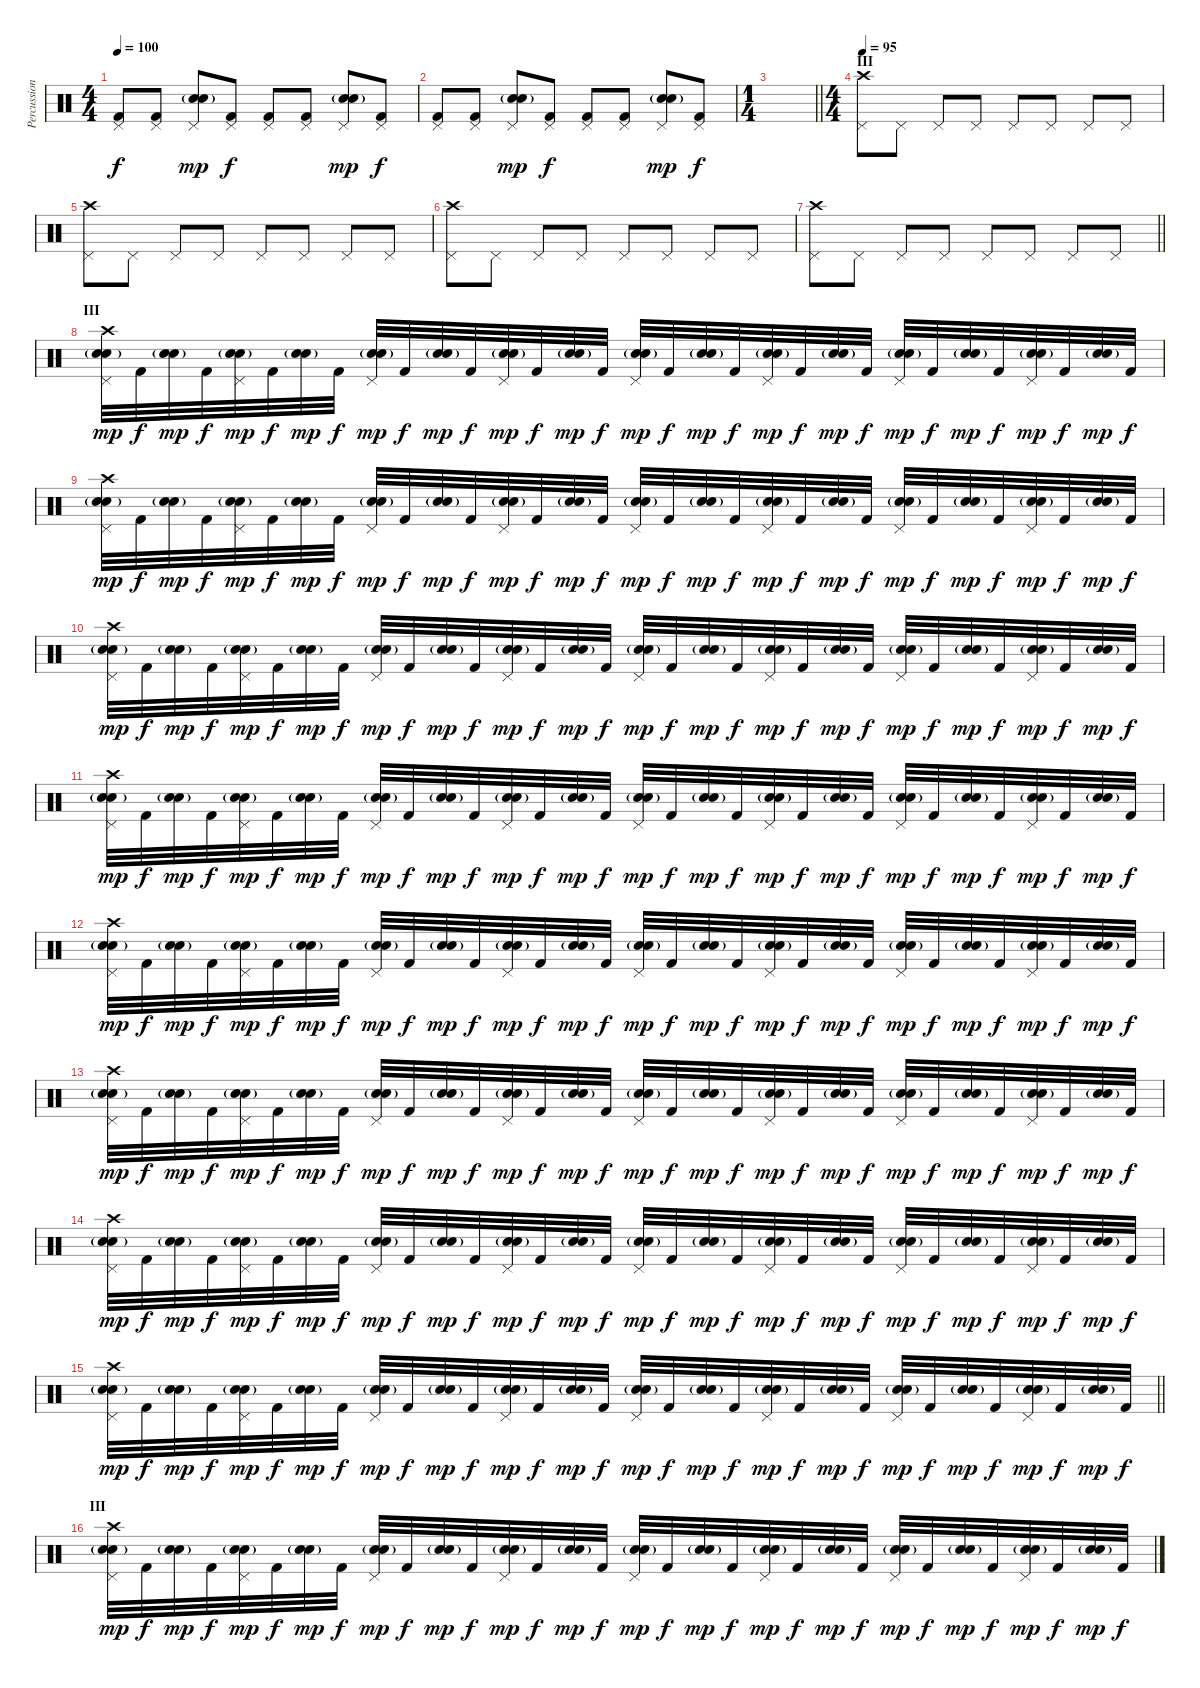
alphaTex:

\track ("Percussion" "Percussion") {instrument percussion}
\staff {score}
\articulation defaults
\ts (4 4)
\tempo 100
\clef neutral
\ks c
("Kick (hit) 2" "Pedal Hi-Hat (hit)").8{dy f} ("Kick (hit) 2" "Pedal Hi-Hat (hit)").8 ("Electric Snare (hit)" "Snare (hit) 2"{g} "Pedal Hi-Hat (hit)").8{dy mp} ("Kick (hit) 2" "Pedal Hi-Hat (hit)").8{dy f} ("Kick (hit) 2" "Pedal Hi-Hat (hit)").8 ("Kick (hit) 2" "Pedal Hi-Hat (hit)").8 ("Electric Snare (hit)" "Snare (hit) 2"{g} "Pedal Hi-Hat (hit)").8{dy mp} ("Kick (hit) 2" "Pedal Hi-Hat (hit)").8{dy f} |
("Kick (hit) 2" "Pedal Hi-Hat (hit)").8 ("Kick (hit) 2" "Pedal Hi-Hat (hit)").8 ("Electric Snare (hit)" "Snare (hit) 2"{g} "Pedal Hi-Hat (hit)").8{dy mp} ("Kick (hit) 2" "Pedal Hi-Hat (hit)").8{dy f} ("Kick (hit) 2" "Pedal Hi-Hat (hit)").8 ("Kick (hit) 2" "Pedal Hi-Hat (hit)").8 ("Electric Snare (hit)" "Snare (hit) 2"{g} "Pedal Hi-Hat (hit)").8{dy mp} ("Kick (hit) 2" "Pedal Hi-Hat (hit)").8{dy f} |
\ts (1 4)
\barLineRight lightlight
|
\ts (4 4)
\section ("" "III")
\tempo 95
("Crash high (hit)" "Pedal Hi-Hat (hit)").8 "Pedal Hi-Hat (hit)".8 "Pedal Hi-Hat (hit)".8 "Pedal Hi-Hat (hit)".8 "Pedal Hi-Hat (hit)".8 "Pedal Hi-Hat (hit)".8 "Pedal Hi-Hat (hit)".8 "Pedal Hi-Hat (hit)".8 |
("Crash high (hit)" "Pedal Hi-Hat (hit)").8 "Pedal Hi-Hat (hit)".8 "Pedal Hi-Hat (hit)".8 "Pedal Hi-Hat (hit)".8 "Pedal Hi-Hat (hit)".8 "Pedal Hi-Hat (hit)".8 "Pedal Hi-Hat (hit)".8 "Pedal Hi-Hat (hit)".8 |
("Crash high (hit)" "Pedal Hi-Hat (hit)").8 "Pedal Hi-Hat (hit)".8 "Pedal Hi-Hat (hit)".8 "Pedal Hi-Hat (hit)".8 "Pedal Hi-Hat (hit)".8 "Pedal Hi-Hat (hit)".8 "Pedal Hi-Hat (hit)".8 "Pedal Hi-Hat (hit)".8 |
\barLineRight lightlight
("Crash high (hit)" "Pedal Hi-Hat (hit)").8 "Pedal Hi-Hat (hit)".8 "Pedal Hi-Hat (hit)".8 "Pedal Hi-Hat (hit)".8 "Pedal Hi-Hat (hit)".8 "Pedal Hi-Hat (hit)".8 "Pedal Hi-Hat (hit)".8 "Pedal Hi-Hat (hit)".8 |
\section ("" "III")
("Crash high (hit)" "Electric Snare (hit)" "Snare (hit) 2"{g} "Pedal Hi-Hat (hit)").32{dy mp} "Kick (hit) 2".32{dy f} ("Electric Snare (hit)" "Snare (hit) 2"{g}).32{dy mp} "Kick (hit) 2".32{dy f} ("Electric Snare (hit)" "Snare (hit) 2"{g} "Pedal Hi-Hat (hit)").32{dy mp} "Kick (hit) 2".32{dy f} ("Electric Snare (hit)" "Snare (hit) 2"{g}).32{dy mp} "Kick (hit) 2".32{dy f} ("Electric Snare (hit)" "Snare (hit) 2"{g} "Pedal Hi-Hat (hit)").32{dy mp} "Kick (hit) 2".32{dy f} ("Electric Snare (hit)" "Snare (hit) 2"{g}).32{dy mp} "Kick (hit) 2".32{dy f} ("Electric Snare (hit)" "Snare (hit) 2"{g} "Pedal Hi-Hat (hit)").32{dy mp} "Kick (hit) 2".32{dy f} ("Electric Snare (hit)" "Snare (hit) 2"{g}).32{dy mp} "Kick (hit) 2".32{dy f} ("Electric Snare (hit)" "Snare (hit) 2"{g} "Pedal Hi-Hat (hit)").32{dy mp} "Kick (hit) 2".32{dy f} ("Electric Snare (hit)" "Snare (hit) 2"{g}).32{dy mp} "Kick (hit) 2".32{dy f} ("Electric Snare (hit)" "Snare (hit) 2"{g} "Pedal Hi-Hat (hit)").32{dy mp} "Kick (hit) 2".32{dy f} ("Electric Snare (hit)" "Snare (hit) 2"{g}).32{dy mp} "Kick (hit) 2".32{dy f} ("Electric Snare (hit)" "Snare (hit) 2"{g} "Pedal Hi-Hat (hit)").32{dy mp} "Kick (hit) 2".32{dy f} ("Electric Snare (hit)" "Snare (hit) 2"{g}).32{dy mp} "Kick (hit) 2".32{dy f} ("Electric Snare (hit)" "Snare (hit) 2"{g} "Pedal Hi-Hat (hit)").32{dy mp} "Kick (hit) 2".32{dy f} ("Electric Snare (hit)" "Snare (hit) 2"{g}).32{dy mp} "Kick (hit) 2".32{dy f} |
("Crash high (hit)" "Electric Snare (hit)" "Snare (hit) 2"{g} "Pedal Hi-Hat (hit)").32{dy mp} "Kick (hit) 2".32{dy f} ("Electric Snare (hit)" "Snare (hit) 2"{g}).32{dy mp} "Kick (hit) 2".32{dy f} ("Electric Snare (hit)" "Snare (hit) 2"{g} "Pedal Hi-Hat (hit)").32{dy mp} "Kick (hit) 2".32{dy f} ("Electric Snare (hit)" "Snare (hit) 2"{g}).32{dy mp} "Kick (hit) 2".32{dy f} ("Electric Snare (hit)" "Snare (hit) 2"{g} "Pedal Hi-Hat (hit)").32{dy mp} "Kick (hit) 2".32{dy f} ("Electric Snare (hit)" "Snare (hit) 2"{g}).32{dy mp} "Kick (hit) 2".32{dy f} ("Electric Snare (hit)" "Snare (hit) 2"{g} "Pedal Hi-Hat (hit)").32{dy mp} "Kick (hit) 2".32{dy f} ("Electric Snare (hit)" "Snare (hit) 2"{g}).32{dy mp} "Kick (hit) 2".32{dy f} ("Electric Snare (hit)" "Snare (hit) 2"{g} "Pedal Hi-Hat (hit)").32{dy mp} "Kick (hit) 2".32{dy f} ("Electric Snare (hit)" "Snare (hit) 2"{g}).32{dy mp} "Kick (hit) 2".32{dy f} ("Electric Snare (hit)" "Snare (hit) 2"{g} "Pedal Hi-Hat (hit)").32{dy mp} "Kick (hit) 2".32{dy f} ("Electric Snare (hit)" "Snare (hit) 2"{g}).32{dy mp} "Kick (hit) 2".32{dy f} ("Electric Snare (hit)" "Snare (hit) 2"{g} "Pedal Hi-Hat (hit)").32{dy mp} "Kick (hit) 2".32{dy f} ("Electric Snare (hit)" "Snare (hit) 2"{g}).32{dy mp} "Kick (hit) 2".32{dy f} ("Electric Snare (hit)" "Snare (hit) 2"{g} "Pedal Hi-Hat (hit)").32{dy mp} "Kick (hit) 2".32{dy f} ("Electric Snare (hit)" "Snare (hit) 2"{g}).32{dy mp} "Kick (hit) 2".32{dy f} |
("Crash high (hit)" "Electric Snare (hit)" "Snare (hit) 2"{g} "Pedal Hi-Hat (hit)").32{dy mp} "Kick (hit) 2".32{dy f} ("Electric Snare (hit)" "Snare (hit) 2"{g}).32{dy mp} "Kick (hit) 2".32{dy f} ("Electric Snare (hit)" "Snare (hit) 2"{g} "Pedal Hi-Hat (hit)").32{dy mp} "Kick (hit) 2".32{dy f} ("Electric Snare (hit)" "Snare (hit) 2"{g}).32{dy mp} "Kick (hit) 2".32{dy f} ("Electric Snare (hit)" "Snare (hit) 2"{g} "Pedal Hi-Hat (hit)").32{dy mp} "Kick (hit) 2".32{dy f} ("Electric Snare (hit)" "Snare (hit) 2"{g}).32{dy mp} "Kick (hit) 2".32{dy f} ("Electric Snare (hit)" "Snare (hit) 2"{g} "Pedal Hi-Hat (hit)").32{dy mp} "Kick (hit) 2".32{dy f} ("Electric Snare (hit)" "Snare (hit) 2"{g}).32{dy mp} "Kick (hit) 2".32{dy f} ("Electric Snare (hit)" "Snare (hit) 2"{g} "Pedal Hi-Hat (hit)").32{dy mp} "Kick (hit) 2".32{dy f} ("Electric Snare (hit)" "Snare (hit) 2"{g}).32{dy mp} "Kick (hit) 2".32{dy f} ("Electric Snare (hit)" "Snare (hit) 2"{g} "Pedal Hi-Hat (hit)").32{dy mp} "Kick (hit) 2".32{dy f} ("Electric Snare (hit)" "Snare (hit) 2"{g}).32{dy mp} "Kick (hit) 2".32{dy f} ("Electric Snare (hit)" "Snare (hit) 2"{g} "Pedal Hi-Hat (hit)").32{dy mp} "Kick (hit) 2".32{dy f} ("Electric Snare (hit)" "Snare (hit) 2"{g}).32{dy mp} "Kick (hit) 2".32{dy f} ("Electric Snare (hit)" "Snare (hit) 2"{g} "Pedal Hi-Hat (hit)").32{dy mp} "Kick (hit) 2".32{dy f} ("Electric Snare (hit)" "Snare (hit) 2"{g}).32{dy mp} "Kick (hit) 2".32{dy f} |
("Crash high (hit)" "Electric Snare (hit)" "Snare (hit) 2"{g} "Pedal Hi-Hat (hit)").32{dy mp} "Kick (hit) 2".32{dy f} ("Electric Snare (hit)" "Snare (hit) 2"{g}).32{dy mp} "Kick (hit) 2".32{dy f} ("Electric Snare (hit)" "Snare (hit) 2"{g} "Pedal Hi-Hat (hit)").32{dy mp} "Kick (hit) 2".32{dy f} ("Electric Snare (hit)" "Snare (hit) 2"{g}).32{dy mp} "Kick (hit) 2".32{dy f} ("Electric Snare (hit)" "Snare (hit) 2"{g} "Pedal Hi-Hat (hit)").32{dy mp} "Kick (hit) 2".32{dy f} ("Electric Snare (hit)" "Snare (hit) 2"{g}).32{dy mp} "Kick (hit) 2".32{dy f} ("Electric Snare (hit)" "Snare (hit) 2"{g} "Pedal Hi-Hat (hit)").32{dy mp} "Kick (hit) 2".32{dy f} ("Electric Snare (hit)" "Snare (hit) 2"{g}).32{dy mp} "Kick (hit) 2".32{dy f} ("Electric Snare (hit)" "Snare (hit) 2"{g} "Pedal Hi-Hat (hit)").32{dy mp} "Kick (hit) 2".32{dy f} ("Electric Snare (hit)" "Snare (hit) 2"{g}).32{dy mp} "Kick (hit) 2".32{dy f} ("Electric Snare (hit)" "Snare (hit) 2"{g} "Pedal Hi-Hat (hit)").32{dy mp} "Kick (hit) 2".32{dy f} ("Electric Snare (hit)" "Snare (hit) 2"{g}).32{dy mp} "Kick (hit) 2".32{dy f} ("Electric Snare (hit)" "Snare (hit) 2"{g} "Pedal Hi-Hat (hit)").32{dy mp} "Kick (hit) 2".32{dy f} ("Electric Snare (hit)" "Snare (hit) 2"{g}).32{dy mp} "Kick (hit) 2".32{dy f} ("Electric Snare (hit)" "Snare (hit) 2"{g} "Pedal Hi-Hat (hit)").32{dy mp} "Kick (hit) 2".32{dy f} ("Electric Snare (hit)" "Snare (hit) 2"{g}).32{dy mp} "Kick (hit) 2".32{dy f} |
("Crash high (hit)" "Electric Snare (hit)" "Snare (hit) 2"{g} "Pedal Hi-Hat (hit)").32{dy mp} "Kick (hit) 2".32{dy f} ("Electric Snare (hit)" "Snare (hit) 2"{g}).32{dy mp} "Kick (hit) 2".32{dy f} ("Electric Snare (hit)" "Snare (hit) 2"{g} "Pedal Hi-Hat (hit)").32{dy mp} "Kick (hit) 2".32{dy f} ("Electric Snare (hit)" "Snare (hit) 2"{g}).32{dy mp} "Kick (hit) 2".32{dy f} ("Electric Snare (hit)" "Snare (hit) 2"{g} "Pedal Hi-Hat (hit)").32{dy mp} "Kick (hit) 2".32{dy f} ("Electric Snare (hit)" "Snare (hit) 2"{g}).32{dy mp} "Kick (hit) 2".32{dy f} ("Electric Snare (hit)" "Snare (hit) 2"{g} "Pedal Hi-Hat (hit)").32{dy mp} "Kick (hit) 2".32{dy f} ("Electric Snare (hit)" "Snare (hit) 2"{g}).32{dy mp} "Kick (hit) 2".32{dy f} ("Electric Snare (hit)" "Snare (hit) 2"{g} "Pedal Hi-Hat (hit)").32{dy mp} "Kick (hit) 2".32{dy f} ("Electric Snare (hit)" "Snare (hit) 2"{g}).32{dy mp} "Kick (hit) 2".32{dy f} ("Electric Snare (hit)" "Snare (hit) 2"{g} "Pedal Hi-Hat (hit)").32{dy mp} "Kick (hit) 2".32{dy f} ("Electric Snare (hit)" "Snare (hit) 2"{g}).32{dy mp} "Kick (hit) 2".32{dy f} ("Electric Snare (hit)" "Snare (hit) 2"{g} "Pedal Hi-Hat (hit)").32{dy mp} "Kick (hit) 2".32{dy f} ("Electric Snare (hit)" "Snare (hit) 2"{g}).32{dy mp} "Kick (hit) 2".32{dy f} ("Electric Snare (hit)" "Snare (hit) 2"{g} "Pedal Hi-Hat (hit)").32{dy mp} "Kick (hit) 2".32{dy f} ("Electric Snare (hit)" "Snare (hit) 2"{g}).32{dy mp} "Kick (hit) 2".32{dy f} |
("Crash high (hit)" "Electric Snare (hit)" "Snare (hit) 2"{g} "Pedal Hi-Hat (hit)").32{dy mp} "Kick (hit) 2".32{dy f} ("Electric Snare (hit)" "Snare (hit) 2"{g}).32{dy mp} "Kick (hit) 2".32{dy f} ("Electric Snare (hit)" "Snare (hit) 2"{g} "Pedal Hi-Hat (hit)").32{dy mp} "Kick (hit) 2".32{dy f} ("Electric Snare (hit)" "Snare (hit) 2"{g}).32{dy mp} "Kick (hit) 2".32{dy f} ("Electric Snare (hit)" "Snare (hit) 2"{g} "Pedal Hi-Hat (hit)").32{dy mp} "Kick (hit) 2".32{dy f} ("Electric Snare (hit)" "Snare (hit) 2"{g}).32{dy mp} "Kick (hit) 2".32{dy f} ("Electric Snare (hit)" "Snare (hit) 2"{g} "Pedal Hi-Hat (hit)").32{dy mp} "Kick (hit) 2".32{dy f} ("Electric Snare (hit)" "Snare (hit) 2"{g}).32{dy mp} "Kick (hit) 2".32{dy f} ("Electric Snare (hit)" "Snare (hit) 2"{g} "Pedal Hi-Hat (hit)").32{dy mp} "Kick (hit) 2".32{dy f} ("Electric Snare (hit)" "Snare (hit) 2"{g}).32{dy mp} "Kick (hit) 2".32{dy f} ("Electric Snare (hit)" "Snare (hit) 2"{g} "Pedal Hi-Hat (hit)").32{dy mp} "Kick (hit) 2".32{dy f} ("Electric Snare (hit)" "Snare (hit) 2"{g}).32{dy mp} "Kick (hit) 2".32{dy f} ("Electric Snare (hit)" "Snare (hit) 2"{g} "Pedal Hi-Hat (hit)").32{dy mp} "Kick (hit) 2".32{dy f} ("Electric Snare (hit)" "Snare (hit) 2"{g}).32{dy mp} "Kick (hit) 2".32{dy f} ("Electric Snare (hit)" "Snare (hit) 2"{g} "Pedal Hi-Hat (hit)").32{dy mp} "Kick (hit) 2".32{dy f} ("Electric Snare (hit)" "Snare (hit) 2"{g}).32{dy mp} "Kick (hit) 2".32{dy f} |
("Crash high (hit)" "Electric Snare (hit)" "Snare (hit) 2"{g} "Pedal Hi-Hat (hit)").32{dy mp} "Kick (hit) 2".32{dy f} ("Electric Snare (hit)" "Snare (hit) 2"{g}).32{dy mp} "Kick (hit) 2".32{dy f} ("Electric Snare (hit)" "Snare (hit) 2"{g} "Pedal Hi-Hat (hit)").32{dy mp} "Kick (hit) 2".32{dy f} ("Electric Snare (hit)" "Snare (hit) 2"{g}).32{dy mp} "Kick (hit) 2".32{dy f} ("Electric Snare (hit)" "Snare (hit) 2"{g} "Pedal Hi-Hat (hit)").32{dy mp} "Kick (hit) 2".32{dy f} ("Electric Snare (hit)" "Snare (hit) 2"{g}).32{dy mp} "Kick (hit) 2".32{dy f} ("Electric Snare (hit)" "Snare (hit) 2"{g} "Pedal Hi-Hat (hit)").32{dy mp} "Kick (hit) 2".32{dy f} ("Electric Snare (hit)" "Snare (hit) 2"{g}).32{dy mp} "Kick (hit) 2".32{dy f} ("Electric Snare (hit)" "Snare (hit) 2"{g} "Pedal Hi-Hat (hit)").32{dy mp} "Kick (hit) 2".32{dy f} ("Electric Snare (hit)" "Snare (hit) 2"{g}).32{dy mp} "Kick (hit) 2".32{dy f} ("Electric Snare (hit)" "Snare (hit) 2"{g} "Pedal Hi-Hat (hit)").32{dy mp} "Kick (hit) 2".32{dy f} ("Electric Snare (hit)" "Snare (hit) 2"{g}).32{dy mp} "Kick (hit) 2".32{dy f} ("Electric Snare (hit)" "Snare (hit) 2"{g} "Pedal Hi-Hat (hit)").32{dy mp} "Kick (hit) 2".32{dy f} ("Electric Snare (hit)" "Snare (hit) 2"{g}).32{dy mp} "Kick (hit) 2".32{dy f} ("Electric Snare (hit)" "Snare (hit) 2"{g} "Pedal Hi-Hat (hit)").32{dy mp} "Kick (hit) 2".32{dy f} ("Electric Snare (hit)" "Snare (hit) 2"{g}).32{dy mp} "Kick (hit) 2".32{dy f} |
\barLineRight lightlight
("Crash high (hit)" "Electric Snare (hit)" "Snare (hit) 2"{g} "Pedal Hi-Hat (hit)").32{dy mp} "Kick (hit) 2".32{dy f} ("Electric Snare (hit)" "Snare (hit) 2"{g}).32{dy mp} "Kick (hit) 2".32{dy f} ("Electric Snare (hit)" "Snare (hit) 2"{g} "Pedal Hi-Hat (hit)").32{dy mp} "Kick (hit) 2".32{dy f} ("Electric Snare (hit)" "Snare (hit) 2"{g}).32{dy mp} "Kick (hit) 2".32{dy f} ("Electric Snare (hit)" "Snare (hit) 2"{g} "Pedal Hi-Hat (hit)").32{dy mp} "Kick (hit) 2".32{dy f} ("Electric Snare (hit)" "Snare (hit) 2"{g}).32{dy mp} "Kick (hit) 2".32{dy f} ("Electric Snare (hit)" "Snare (hit) 2"{g} "Pedal Hi-Hat (hit)").32{dy mp} "Kick (hit) 2".32{dy f} ("Electric Snare (hit)" "Snare (hit) 2"{g}).32{dy mp} "Kick (hit) 2".32{dy f} ("Electric Snare (hit)" "Snare (hit) 2"{g} "Pedal Hi-Hat (hit)").32{dy mp} "Kick (hit) 2".32{dy f} ("Electric Snare (hit)" "Snare (hit) 2"{g}).32{dy mp} "Kick (hit) 2".32{dy f} ("Electric Snare (hit)" "Snare (hit) 2"{g} "Pedal Hi-Hat (hit)").32{dy mp} "Kick (hit) 2".32{dy f} ("Electric Snare (hit)" "Snare (hit) 2"{g}).32{dy mp} "Kick (hit) 2".32{dy f} ("Electric Snare (hit)" "Snare (hit) 2"{g} "Pedal Hi-Hat (hit)").32{dy mp} "Kick (hit) 2".32{dy f} ("Electric Snare (hit)" "Snare (hit) 2"{g}).32{dy mp} "Kick (hit) 2".32{dy f} ("Electric Snare (hit)" "Snare (hit) 2"{g} "Pedal Hi-Hat (hit)").32{dy mp} "Kick (hit) 2".32{dy f} ("Electric Snare (hit)" "Snare (hit) 2"{g}).32{dy mp} "Kick (hit) 2".32{dy f} |
\section ("" "III")
("Crash high (hit)" "Electric Snare (hit)" "Snare (hit) 2"{g} "Pedal Hi-Hat (hit)").32{dy mp} "Kick (hit) 2".32{dy f} ("Electric Snare (hit)" "Snare (hit) 2"{g}).32{dy mp} "Kick (hit) 2".32{dy f} ("Electric Snare (hit)" "Snare (hit) 2"{g} "Pedal Hi-Hat (hit)").32{dy mp} "Kick (hit) 2".32{dy f} ("Electric Snare (hit)" "Snare (hit) 2"{g}).32{dy mp} "Kick (hit) 2".32{dy f} ("Electric Snare (hit)" "Snare (hit) 2"{g} "Pedal Hi-Hat (hit)").32{dy mp} "Kick (hit) 2".32{dy f} ("Electric Snare (hit)" "Snare (hit) 2"{g}).32{dy mp} "Kick (hit) 2".32{dy f} ("Electric Snare (hit)" "Snare (hit) 2"{g} "Pedal Hi-Hat (hit)").32{dy mp} "Kick (hit) 2".32{dy f} ("Electric Snare (hit)" "Snare (hit) 2"{g}).32{dy mp} "Kick (hit) 2".32{dy f} ("Electric Snare (hit)" "Snare (hit) 2"{g} "Pedal Hi-Hat (hit)").32{dy mp} "Kick (hit) 2".32{dy f} ("Electric Snare (hit)" "Snare (hit) 2"{g}).32{dy mp} "Kick (hit) 2".32{dy f} ("Electric Snare (hit)" "Snare (hit) 2"{g} "Pedal Hi-Hat (hit)").32{dy mp} "Kick (hit) 2".32{dy f} ("Electric Snare (hit)" "Snare (hit) 2"{g}).32{dy mp} "Kick (hit) 2".32{dy f} ("Electric Snare (hit)" "Snare (hit) 2"{g} "Pedal Hi-Hat (hit)").32{dy mp} "Kick (hit) 2".32{dy f} ("Electric Snare (hit)" "Snare (hit) 2"{g}).32{dy mp} "Kick (hit) 2".32{dy f} ("Electric Snare (hit)" "Snare (hit) 2"{g} "Pedal Hi-Hat (hit)").32{dy mp} "Kick (hit) 2".32{dy f} ("Electric Snare (hit)" "Snare (hit) 2"{g}).32{dy mp} "Kick (hit) 2".32{dy f}
